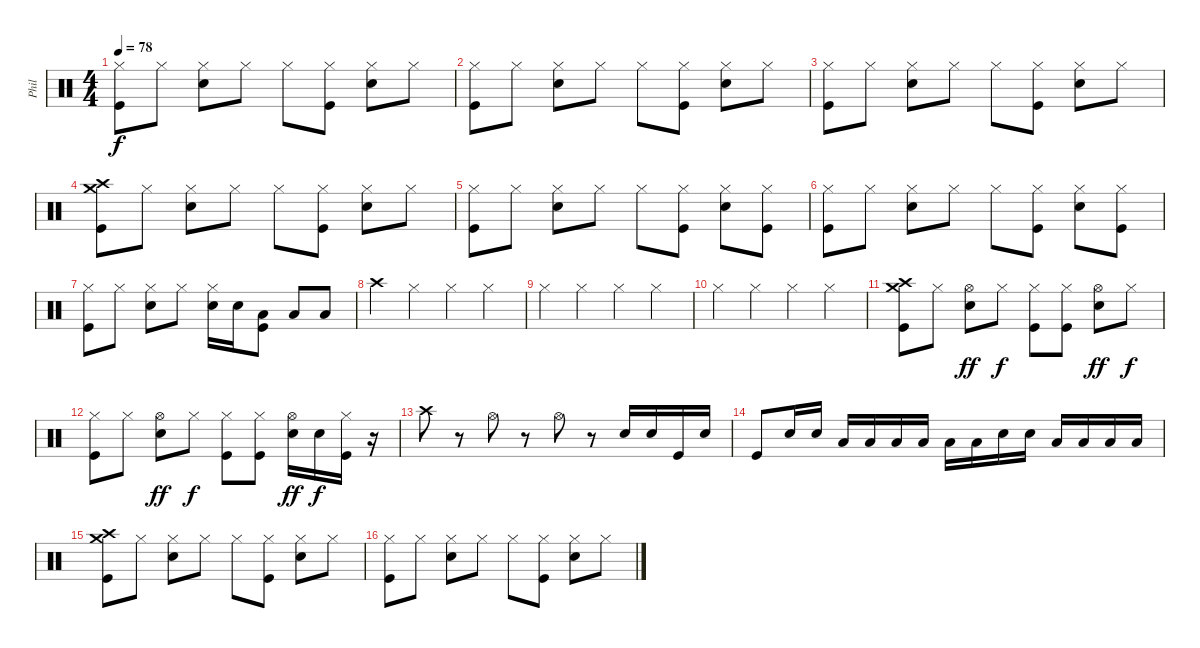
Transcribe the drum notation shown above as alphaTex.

\track ("Phil" "Phil") {instrument percussion}
\staff {score}
\articulation defaults
\ts (4 4)
\tempo 78
\clef neutral
\ks c
("Hi-Hat (closed)" "Kick (hit)").8{dy f} "Hi-Hat (closed)".8 ("Hi-Hat (closed)" "Electric Snare (hit)").8 "Hi-Hat (closed)".8 "Hi-Hat (closed)".8 ("Hi-Hat (closed)" "Kick (hit)").8 ("Hi-Hat (closed)" "Electric Snare (hit)").8 "Hi-Hat (closed)".8 |
("Hi-Hat (closed)" "Kick (hit)").8 "Hi-Hat (closed)".8 ("Hi-Hat (closed)" "Electric Snare (hit)").8 "Hi-Hat (closed)".8 "Hi-Hat (closed)".8 ("Hi-Hat (closed)" "Kick (hit)").8 ("Hi-Hat (closed)" "Electric Snare (hit)").8 "Hi-Hat (closed)".8 |
("Hi-Hat (closed)" "Kick (hit)").8 "Hi-Hat (closed)".8 ("Hi-Hat (closed)" "Electric Snare (hit)").8 "Hi-Hat (closed)".8 "Hi-Hat (closed)".8 ("Hi-Hat (closed)" "Kick (hit)").8 ("Hi-Hat (closed)" "Electric Snare (hit)").8 "Hi-Hat (closed)".8 |
("Crash high (hit)" "Crash medium (hit)" "Kick (hit)").8 "Hi-Hat (closed)".8 ("Hi-Hat (closed)" "Electric Snare (hit)").8 "Hi-Hat (closed)".8 "Hi-Hat (closed)".8 ("Hi-Hat (closed)" "Kick (hit)").8 ("Hi-Hat (closed)" "Electric Snare (hit)").8 "Hi-Hat (closed)".8 |
("Hi-Hat (closed)" "Kick (hit)").8 "Hi-Hat (closed)".8 ("Hi-Hat (closed)" "Electric Snare (hit)").8 "Hi-Hat (closed)".8 "Hi-Hat (closed)".8 ("Hi-Hat (closed)" "Kick (hit)").8 ("Hi-Hat (closed)" "Electric Snare (hit)").8 ("Hi-Hat (closed)" "Kick (hit)").8 |
("Hi-Hat (closed)" "Kick (hit)").8 "Hi-Hat (closed)".8 ("Hi-Hat (closed)" "Electric Snare (hit)").8 "Hi-Hat (closed)".8 "Hi-Hat (closed)".8 ("Hi-Hat (closed)" "Kick (hit)").8 ("Hi-Hat (closed)" "Electric Snare (hit)").8 ("Hi-Hat (closed)" "Kick (hit)").8 |
("Hi-Hat (closed)" "Kick (hit)").8 "Hi-Hat (closed)".8 ("Hi-Hat (closed)" "Electric Snare (hit)").8 "Hi-Hat (closed)".8 ("Hi-Hat (closed)" "Electric Snare (hit)").16 "Electric Snare (hit)".16 ("Low Floor Tom (hit)" "Kick (hit)").8 "Low Floor Tom (hit)".8 "Low Floor Tom (hit)".8 |
"Crash high (hit)".4 "Hi-Hat (closed)".4 "Hi-Hat (closed)".4 "Hi-Hat (closed)".4 |
"Hi-Hat (closed)".4 "Hi-Hat (closed)".4 "Hi-Hat (closed)".4 "Hi-Hat (closed)".4 |
"Hi-Hat (closed)".4 "Hi-Hat (closed)".4 "Hi-Hat (closed)".4 "Hi-Hat (closed)".4 |
("Crash high (hit)" "Crash medium (hit)" "Kick (hit)").8 "Hi-Hat (closed)".8 ("Hi-Hat (open)" "Electric Snare (hit)").8{dy ff} "Hi-Hat (closed)".8{dy f} ("Hi-Hat (closed)" "Kick (hit)").8 ("Hi-Hat (closed)" "Kick (hit)").8 ("Hi-Hat (open)" "Electric Snare (hit)").8{dy ff} "Hi-Hat (closed)".8{dy f} |
("Hi-Hat (closed)" "Kick (hit)").8 "Hi-Hat (closed)".8 ("Hi-Hat (open)" "Electric Snare (hit)").8{dy ff} "Hi-Hat (closed)".8{dy f} ("Hi-Hat (closed)" "Kick (hit)").8 ("Hi-Hat (closed)" "Kick (hit)").8 ("Hi-Hat (open)" "Electric Snare (hit)").16{dy ff} "Electric Snare (hit)".16{dy f} ("Hi-Hat (closed)" "Kick (hit)").16 r.16 |
"Crash high (hit)".8 r.8 "Hi-Hat (open)".8 r.8 "Hi-Hat (open)".8 r.8 "Electric Snare (hit)".16 "Electric Snare (hit)".16 "Kick (hit)".16 "Electric Snare (hit)".16 |
"Kick (hit)".8 "Electric Snare (hit)".16 "Electric Snare (hit)".16 "Low Tom (hit)".16 "Low Tom (hit)".16 "Low Tom (hit)".16 "Low Tom (hit)".16 "Low Floor Tom (hit)".16 "Low Floor Tom (hit)".16 "Electric Snare (hit)".16 "Electric Snare (hit)".16 "Low Floor Tom (hit)".16 "Low Floor Tom (hit)".16 "Low Floor Tom (hit)".16 "Low Floor Tom (hit)".16 |
("Crash high (hit)" "Crash medium (hit)" "Kick (hit)").8 "Hi-Hat (closed)".8 ("Hi-Hat (closed)" "Electric Snare (hit)").8 "Hi-Hat (closed)".8 "Hi-Hat (closed)".8 ("Hi-Hat (closed)" "Kick (hit)").8 ("Hi-Hat (closed)" "Electric Snare (hit)").8 "Hi-Hat (closed)".8 |
("Hi-Hat (closed)" "Kick (hit)").8 "Hi-Hat (closed)".8 ("Hi-Hat (closed)" "Electric Snare (hit)").8 "Hi-Hat (closed)".8 "Hi-Hat (closed)".8 ("Hi-Hat (closed)" "Kick (hit)").8 ("Hi-Hat (closed)" "Electric Snare (hit)").8 "Hi-Hat (closed)".8
